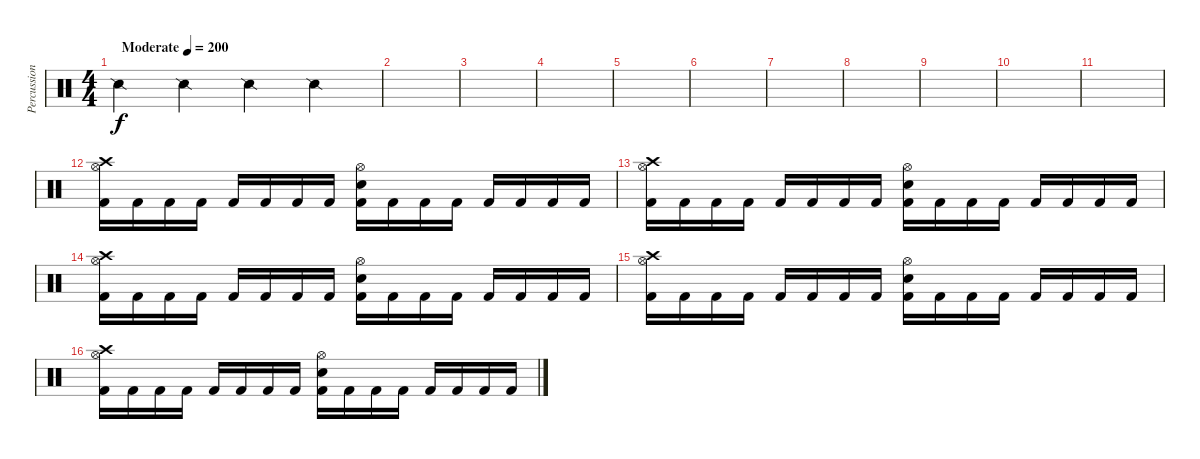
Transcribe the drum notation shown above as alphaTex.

\track ("Percussion" "Percussion") {instrument percussion}
\staff {score}
\articulation defaults
\ts (4 4)
\tempo (200 "Moderate")
\clef neutral
\ks c "Snare (side stick) 2".4{dy f} "Snare (side stick) 2".4 "Snare (side stick) 2".4 "Snare (side stick) 2".4
|
|
|
|
|
|
|
|
|
|
|
("Crash high (hit)" "Hi-Hat (open)" "Kick (hit) 2").16 "Kick (hit) 2".16 "Kick (hit) 2".16 "Kick (hit) 2".16 "Kick (hit) 2".16 "Kick (hit) 2".16 "Kick (hit) 2".16 "Kick (hit) 2".16 ("Hi-Hat (open)" "Snare (hit) 2" "Kick (hit) 2").16 "Kick (hit) 2".16 "Kick (hit) 2".16 "Kick (hit) 2".16 "Kick (hit) 2".16 "Kick (hit) 2".16 "Kick (hit) 2".16 "Kick (hit) 2".16 |
("Crash high (hit)" "Hi-Hat (open)" "Kick (hit) 2").16 "Kick (hit) 2".16 "Kick (hit) 2".16 "Kick (hit) 2".16 "Kick (hit) 2".16 "Kick (hit) 2".16 "Kick (hit) 2".16 "Kick (hit) 2".16 ("Hi-Hat (open)" "Snare (hit) 2" "Kick (hit) 2").16 "Kick (hit) 2".16 "Kick (hit) 2".16 "Kick (hit) 2".16 "Kick (hit) 2".16 "Kick (hit) 2".16 "Kick (hit) 2".16 "Kick (hit) 2".16 |
("Crash high (hit)" "Hi-Hat (open)" "Kick (hit) 2").16 "Kick (hit) 2".16 "Kick (hit) 2".16 "Kick (hit) 2".16 "Kick (hit) 2".16 "Kick (hit) 2".16 "Kick (hit) 2".16 "Kick (hit) 2".16 ("Hi-Hat (open)" "Snare (hit) 2" "Kick (hit) 2").16 "Kick (hit) 2".16 "Kick (hit) 2".16 "Kick (hit) 2".16 "Kick (hit) 2".16 "Kick (hit) 2".16 "Kick (hit) 2".16 "Kick (hit) 2".16 |
("Crash high (hit)" "Hi-Hat (open)" "Kick (hit) 2").16 "Kick (hit) 2".16 "Kick (hit) 2".16 "Kick (hit) 2".16 "Kick (hit) 2".16 "Kick (hit) 2".16 "Kick (hit) 2".16 "Kick (hit) 2".16 ("Hi-Hat (open)" "Snare (hit) 2" "Kick (hit) 2").16 "Kick (hit) 2".16 "Kick (hit) 2".16 "Kick (hit) 2".16 "Kick (hit) 2".16 "Kick (hit) 2".16 "Kick (hit) 2".16 "Kick (hit) 2".16 |
("Crash high (hit)" "Hi-Hat (open)" "Kick (hit) 2").16 "Kick (hit) 2".16 "Kick (hit) 2".16 "Kick (hit) 2".16 "Kick (hit) 2".16 "Kick (hit) 2".16 "Kick (hit) 2".16 "Kick (hit) 2".16 ("Hi-Hat (open)" "Snare (hit) 2" "Kick (hit) 2").16 "Kick (hit) 2".16 "Kick (hit) 2".16 "Kick (hit) 2".16 "Kick (hit) 2".16 "Kick (hit) 2".16 "Kick (hit) 2".16 "Kick (hit) 2".16
